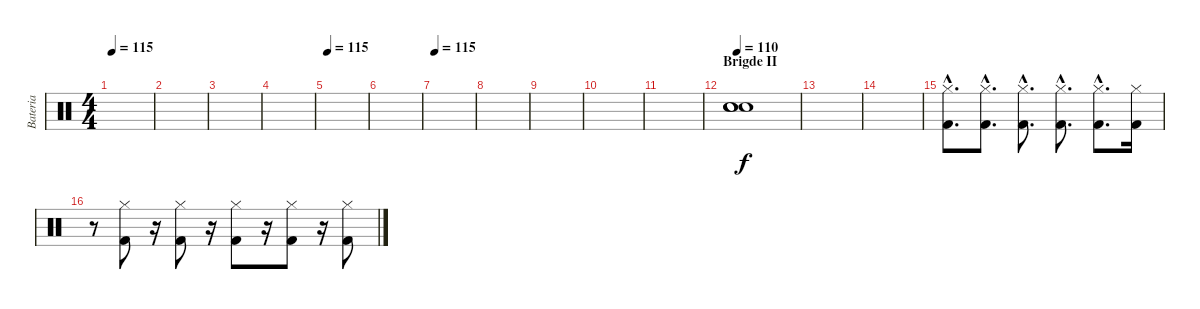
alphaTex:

\track ("Bateria" "Bateria") {instrument percussion}
\staff {score}
\articulation defaults
\ts (4 4)
\tempo 115
\clef neutral
\ks c
|
|
|
|
\section ("" "")
\tempo 115
|
|
\tempo 115
|
|
|
|
|
\section ("" "Brigde II")
\tempo 110
("Snare (hit) 2" "Snare (hit) 2" "Snare (hit) 2").1 |
|
|
("Kick (hit) 2"{hac} "Hi-Hat (closed)"{hac}).8{d} ("Kick (hit) 2"{hac} "Hi-Hat (closed)"{hac}).8{d} ("Kick (hit) 2"{hac} "Hi-Hat (closed)"{hac}).8{d} ("Kick (hit) 2"{hac} "Hi-Hat (closed)"{hac}).8{d} ("Kick (hit) 2"{hac} "Hi-Hat (closed)"{hac}).8{d} ("Kick (hit) 2" "Hi-Hat (closed)").16 |
r.8 ("Kick (hit) 2" "Hi-Hat (closed)").8 r.16 ("Kick (hit) 2" "Hi-Hat (closed)").8 r.16 ("Kick (hit) 2" "Hi-Hat (closed)").8 r.16 ("Kick (hit) 2" "Hi-Hat (closed)").8 r.16 ("Kick (hit) 2" "Hi-Hat (closed)").8
